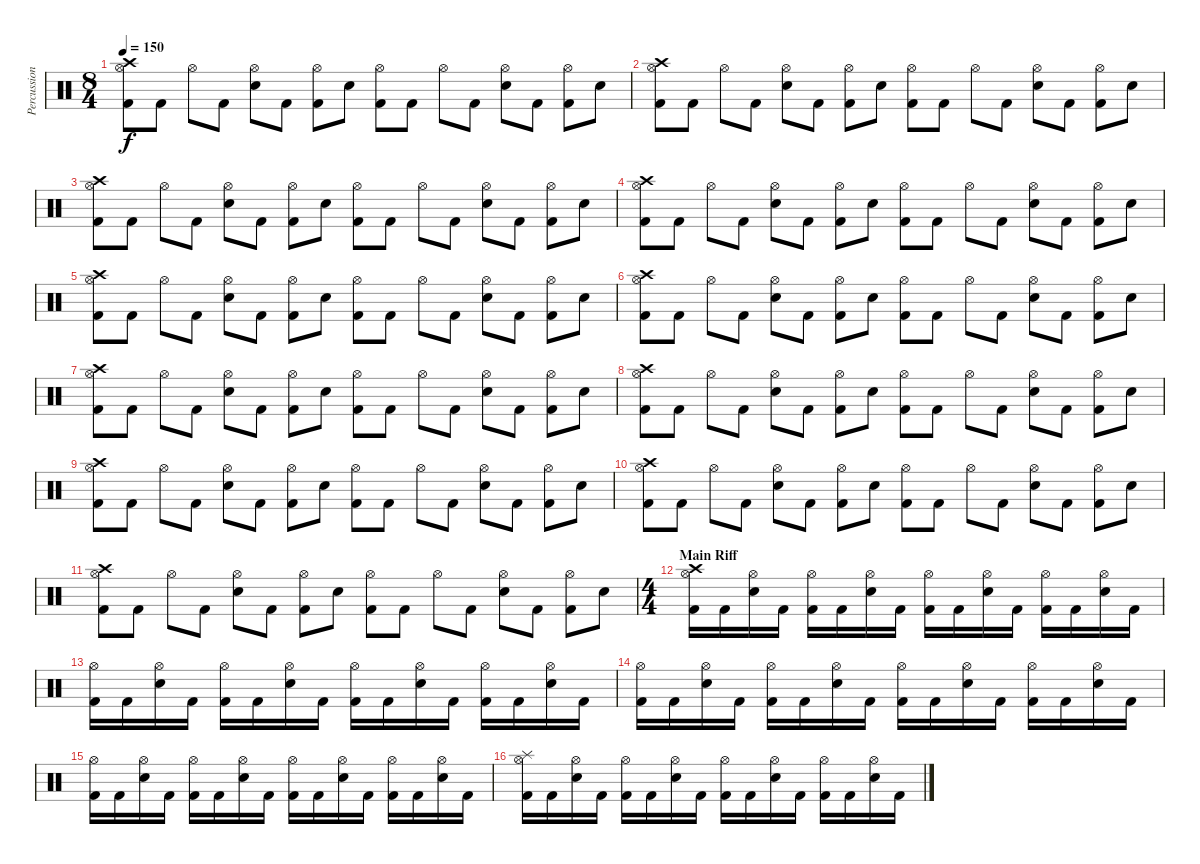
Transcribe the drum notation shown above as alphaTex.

\track ("Percussions" "Percussion") {instrument percussion}
\staff {score}
\articulation defaults
\ts (8 4)
\tempo 150
\clef neutral
\ks c
("Crash high (hit)" "Hi-Hat (open)" "Kick (hit) 2").8{dy f} "Kick (hit) 2".8 "Hi-Hat (open)".8 "Kick (hit) 2".8 ("Hi-Hat (open)" "Electric Snare (hit)").8 "Kick (hit) 2".8 ("Hi-Hat (open)" "Kick (hit) 2").8 "Electric Snare (hit)".8 ("Hi-Hat (open)" "Kick (hit) 2").8 "Kick (hit) 2".8 "Hi-Hat (open)".8 "Kick (hit) 2".8 ("Hi-Hat (open)" "Electric Snare (hit)").8 "Kick (hit) 2".8 ("Hi-Hat (open)" "Kick (hit) 2").8 "Electric Snare (hit)".8 |
("Crash high (hit)" "Hi-Hat (open)" "Kick (hit) 2").8 "Kick (hit) 2".8 "Hi-Hat (open)".8 "Kick (hit) 2".8 ("Hi-Hat (open)" "Electric Snare (hit)").8 "Kick (hit) 2".8 ("Hi-Hat (open)" "Kick (hit) 2").8 "Electric Snare (hit)".8 ("Hi-Hat (open)" "Kick (hit) 2").8 "Kick (hit) 2".8 "Hi-Hat (open)".8 "Kick (hit) 2".8 ("Hi-Hat (open)" "Electric Snare (hit)").8 "Kick (hit) 2".8 ("Hi-Hat (open)" "Kick (hit) 2").8 "Electric Snare (hit)".8 |
("Crash high (hit)" "Hi-Hat (open)" "Kick (hit) 2").8 "Kick (hit) 2".8 "Hi-Hat (open)".8 "Kick (hit) 2".8 ("Hi-Hat (open)" "Electric Snare (hit)").8 "Kick (hit) 2".8 ("Hi-Hat (open)" "Kick (hit) 2").8 "Electric Snare (hit)".8 ("Hi-Hat (open)" "Kick (hit) 2").8 "Kick (hit) 2".8 "Hi-Hat (open)".8 "Kick (hit) 2".8 ("Hi-Hat (open)" "Electric Snare (hit)").8 "Kick (hit) 2".8 ("Hi-Hat (open)" "Kick (hit) 2").8 "Electric Snare (hit)".8 |
("Crash high (hit)" "Hi-Hat (open)" "Kick (hit) 2").8 "Kick (hit) 2".8 "Hi-Hat (open)".8 "Kick (hit) 2".8 ("Hi-Hat (open)" "Electric Snare (hit)").8 "Kick (hit) 2".8 ("Hi-Hat (open)" "Kick (hit) 2").8 "Electric Snare (hit)".8 ("Hi-Hat (open)" "Kick (hit) 2").8 "Kick (hit) 2".8 "Hi-Hat (open)".8 "Kick (hit) 2".8 ("Hi-Hat (open)" "Electric Snare (hit)").8 "Kick (hit) 2".8 ("Hi-Hat (open)" "Kick (hit) 2").8 "Electric Snare (hit)".8 |
("Crash high (hit)" "Hi-Hat (open)" "Kick (hit) 2").8 "Kick (hit) 2".8 "Hi-Hat (open)".8 "Kick (hit) 2".8 ("Hi-Hat (open)" "Electric Snare (hit)").8 "Kick (hit) 2".8 ("Hi-Hat (open)" "Kick (hit) 2").8 "Electric Snare (hit)".8 ("Hi-Hat (open)" "Kick (hit) 2").8 "Kick (hit) 2".8 "Hi-Hat (open)".8 "Kick (hit) 2".8 ("Hi-Hat (open)" "Electric Snare (hit)").8 "Kick (hit) 2".8 ("Hi-Hat (open)" "Kick (hit) 2").8 "Electric Snare (hit)".8 |
("Crash high (hit)" "Hi-Hat (open)" "Kick (hit) 2").8 "Kick (hit) 2".8 "Hi-Hat (open)".8 "Kick (hit) 2".8 ("Hi-Hat (open)" "Electric Snare (hit)").8 "Kick (hit) 2".8 ("Hi-Hat (open)" "Kick (hit) 2").8 "Electric Snare (hit)".8 ("Hi-Hat (open)" "Kick (hit) 2").8 "Kick (hit) 2".8 "Hi-Hat (open)".8 "Kick (hit) 2".8 ("Hi-Hat (open)" "Electric Snare (hit)").8 "Kick (hit) 2".8 ("Hi-Hat (open)" "Kick (hit) 2").8 "Electric Snare (hit)".8 |
("Crash high (hit)" "Hi-Hat (open)" "Kick (hit) 2").8 "Kick (hit) 2".8 "Hi-Hat (open)".8 "Kick (hit) 2".8 ("Hi-Hat (open)" "Electric Snare (hit)").8 "Kick (hit) 2".8 ("Hi-Hat (open)" "Kick (hit) 2").8 "Electric Snare (hit)".8 ("Hi-Hat (open)" "Kick (hit) 2").8 "Kick (hit) 2".8 "Hi-Hat (open)".8 "Kick (hit) 2".8 ("Hi-Hat (open)" "Electric Snare (hit)").8 "Kick (hit) 2".8 ("Hi-Hat (open)" "Kick (hit) 2").8 "Electric Snare (hit)".8 |
("Crash high (hit)" "Hi-Hat (open)" "Kick (hit) 2").8 "Kick (hit) 2".8 "Hi-Hat (open)".8 "Kick (hit) 2".8 ("Hi-Hat (open)" "Electric Snare (hit)").8 "Kick (hit) 2".8 ("Hi-Hat (open)" "Kick (hit) 2").8 "Electric Snare (hit)".8 ("Hi-Hat (open)" "Kick (hit) 2").8 "Kick (hit) 2".8 "Hi-Hat (open)".8 "Kick (hit) 2".8 ("Hi-Hat (open)" "Electric Snare (hit)").8 "Kick (hit) 2".8 ("Hi-Hat (open)" "Kick (hit) 2").8 "Electric Snare (hit)".8 |
("Crash high (hit)" "Hi-Hat (open)" "Kick (hit) 2").8 "Kick (hit) 2".8 "Hi-Hat (open)".8 "Kick (hit) 2".8 ("Hi-Hat (open)" "Electric Snare (hit)").8 "Kick (hit) 2".8 ("Hi-Hat (open)" "Kick (hit) 2").8 "Electric Snare (hit)".8 ("Hi-Hat (open)" "Kick (hit) 2").8 "Kick (hit) 2".8 "Hi-Hat (open)".8 "Kick (hit) 2".8 ("Hi-Hat (open)" "Electric Snare (hit)").8 "Kick (hit) 2".8 ("Hi-Hat (open)" "Kick (hit) 2").8 "Electric Snare (hit)".8 |
("Crash high (hit)" "Hi-Hat (open)" "Kick (hit) 2").8 "Kick (hit) 2".8 "Hi-Hat (open)".8 "Kick (hit) 2".8 ("Hi-Hat (open)" "Electric Snare (hit)").8 "Kick (hit) 2".8 ("Hi-Hat (open)" "Kick (hit) 2").8 "Electric Snare (hit)".8 ("Hi-Hat (open)" "Kick (hit) 2").8 "Kick (hit) 2".8 "Hi-Hat (open)".8 "Kick (hit) 2".8 ("Hi-Hat (open)" "Electric Snare (hit)").8 "Kick (hit) 2".8 ("Hi-Hat (open)" "Kick (hit) 2").8 "Electric Snare (hit)".8 |
("Crash high (hit)" "Hi-Hat (open)" "Kick (hit) 2").8 "Kick (hit) 2".8 "Hi-Hat (open)".8 "Kick (hit) 2".8 ("Hi-Hat (open)" "Electric Snare (hit)").8 "Kick (hit) 2".8 ("Hi-Hat (open)" "Kick (hit) 2").8 "Electric Snare (hit)".8 ("Hi-Hat (open)" "Kick (hit) 2").8 "Kick (hit) 2".8 "Hi-Hat (open)".8 "Kick (hit) 2".8 ("Hi-Hat (open)" "Electric Snare (hit)").8 "Kick (hit) 2".8 ("Hi-Hat (open)" "Kick (hit) 2").8 "Electric Snare (hit)".8 |
\ts (4 4)
\section ("" "Main Riff")
("Crash high (hit)" "Hi-Hat (open)" "Kick (hit) 2").16 "Kick (hit) 2".16 ("Hi-Hat (open)" "Electric Snare (hit)").16 "Kick (hit) 2".16 ("Hi-Hat (open)" "Kick (hit) 2").16 "Kick (hit) 2".16 ("Hi-Hat (open)" "Electric Snare (hit)").16 "Kick (hit) 2".16 ("Hi-Hat (open)" "Kick (hit) 2").16 "Kick (hit) 2".16 ("Hi-Hat (open)" "Electric Snare (hit)").16 "Kick (hit) 2".16 ("Hi-Hat (open)" "Kick (hit) 2").16 "Kick (hit) 2".16 ("Hi-Hat (open)" "Electric Snare (hit)").16 "Kick (hit) 2".16 |
("Hi-Hat (open)" "Kick (hit) 2").16 "Kick (hit) 2".16 ("Hi-Hat (open)" "Electric Snare (hit)").16 "Kick (hit) 2".16 ("Hi-Hat (open)" "Kick (hit) 2").16 "Kick (hit) 2".16 ("Hi-Hat (open)" "Electric Snare (hit)").16 "Kick (hit) 2".16 ("Hi-Hat (open)" "Kick (hit) 2").16 "Kick (hit) 2".16 ("Hi-Hat (open)" "Electric Snare (hit)").16 "Kick (hit) 2".16 ("Hi-Hat (open)" "Kick (hit) 2").16 "Kick (hit) 2".16 ("Hi-Hat (open)" "Electric Snare (hit)").16 "Kick (hit) 2".16 |
("Hi-Hat (open)" "Kick (hit) 2").16 "Kick (hit) 2".16 ("Hi-Hat (open)" "Electric Snare (hit)").16 "Kick (hit) 2".16 ("Hi-Hat (open)" "Kick (hit) 2").16 "Kick (hit) 2".16 ("Hi-Hat (open)" "Electric Snare (hit)").16 "Kick (hit) 2".16 ("Hi-Hat (open)" "Kick (hit) 2").16 "Kick (hit) 2".16 ("Hi-Hat (open)" "Electric Snare (hit)").16 "Kick (hit) 2".16 ("Hi-Hat (open)" "Kick (hit) 2").16 "Kick (hit) 2".16 ("Hi-Hat (open)" "Electric Snare (hit)").16 "Kick (hit) 2".16 |
("Hi-Hat (open)" "Kick (hit) 2").16 "Kick (hit) 2".16 ("Hi-Hat (open)" "Electric Snare (hit)").16 "Kick (hit) 2".16 ("Hi-Hat (open)" "Kick (hit) 2").16 "Kick (hit) 2".16 ("Hi-Hat (open)" "Electric Snare (hit)").16 "Kick (hit) 2".16 ("Hi-Hat (open)" "Kick (hit) 2").16 "Kick (hit) 2".16 ("Hi-Hat (open)" "Electric Snare (hit)").16 "Kick (hit) 2".16 ("Hi-Hat (open)" "Kick (hit) 2").16 "Kick (hit) 2".16 ("Hi-Hat (open)" "Electric Snare (hit)").16 "Kick (hit) 2".16 |
("Splash (hit)" "Hi-Hat (open)" "Kick (hit) 2").16 "Kick (hit) 2".16 ("Hi-Hat (open)" "Electric Snare (hit)").16 "Kick (hit) 2".16 ("Hi-Hat (open)" "Kick (hit) 2").16 "Kick (hit) 2".16 ("Hi-Hat (open)" "Electric Snare (hit)").16 "Kick (hit) 2".16 ("Hi-Hat (open)" "Kick (hit) 2").16 "Kick (hit) 2".16 ("Hi-Hat (open)" "Electric Snare (hit)").16 "Kick (hit) 2".16 ("Hi-Hat (open)" "Kick (hit) 2").16 "Kick (hit) 2".16 ("Hi-Hat (open)" "Electric Snare (hit)").16 "Kick (hit) 2".16
